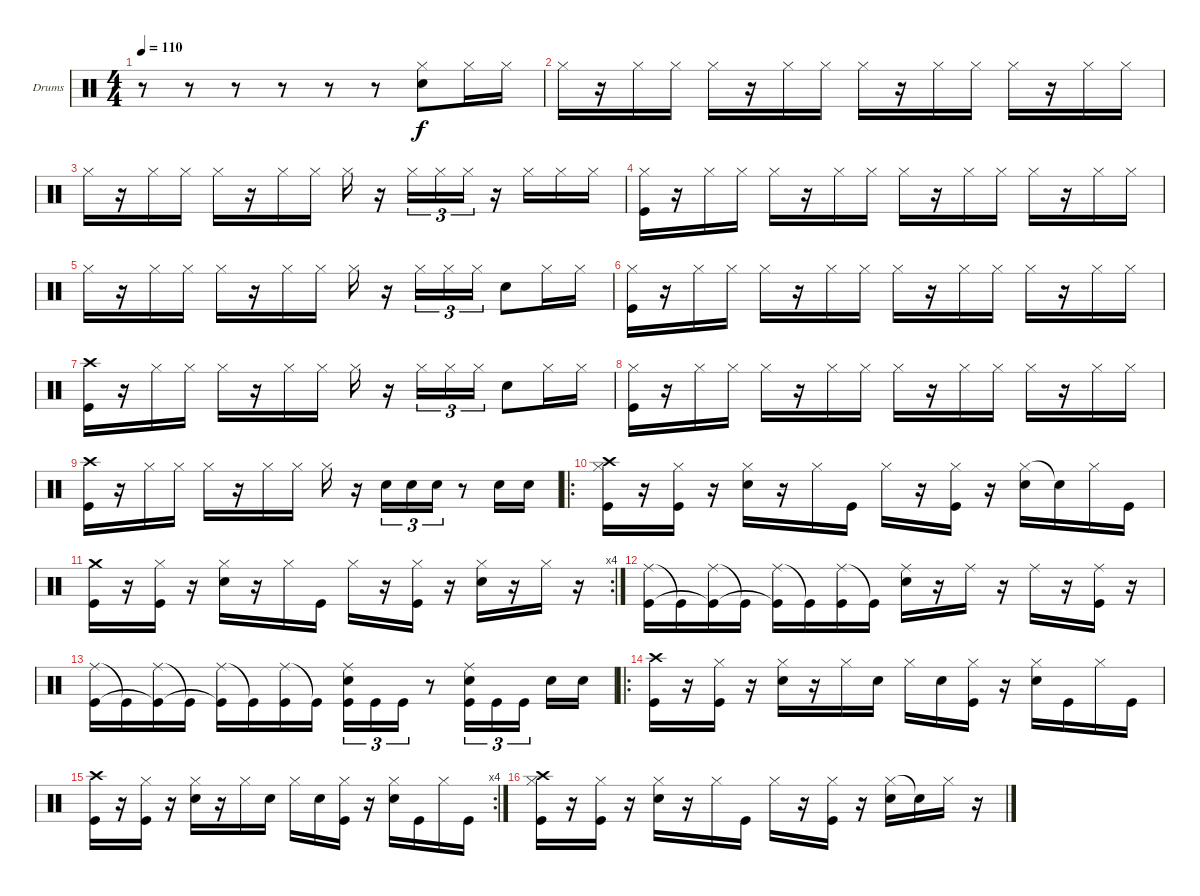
\defaultSystemsLayout 4
\bracketExtendMode groupsimilarinstruments
\firstSystemTrackNameOrientation horizontal
\otherSystemsTrackNameOrientation horizontal
\track ("Павел Тетерин(Pa$ok)" "Drums") {instrument percussion}
\staff {score}
\articulation defaults
\ts (4 4)
\tempo 110
\clef neutral
\scale
0.472222
\ks c
r.8{dy f} r.8 r.8 r.8 r.8 r.8 ("Hi-Hat (closed)" "Snare (hit) 2").8 "Hi-Hat (closed)".16 "Hi-Hat (closed)".16 |
\scale
0.263889 "Hi-Hat (closed)".16 r.16 "Hi-Hat (closed)".16 "Hi-Hat (closed)".16 "Hi-Hat (closed)".16 r.16 "Hi-Hat (closed)".16 "Hi-Hat (closed)".16 "Hi-Hat (closed)".16 r.16 "Hi-Hat (closed)".16 "Hi-Hat (closed)".16 "Hi-Hat (closed)".16 r.16 "Hi-Hat (closed)".16 "Hi-Hat (closed)".16 |
\scale
0.263889 "Hi-Hat (closed)".16 r.16 "Hi-Hat (closed)".16 "Hi-Hat (closed)".16 "Hi-Hat (closed)".16 r.16 "Hi-Hat (closed)".16 "Hi-Hat (closed)".16 "Hi-Hat (closed)".16 r.16 "Hi-Hat (closed)".16{tu (3 2)} "Hi-Hat (closed)".16{tu (3 2)} "Hi-Hat (closed)".16{tu (3 2)} r.16 "Hi-Hat (closed)".16 "Hi-Hat (closed)".16 "Hi-Hat (closed)".16 |
\scale
0.333333 ("Hi-Hat (closed)" "Kick (hit)").16 r.16 "Hi-Hat (closed)".16 "Hi-Hat (closed)".16 "Hi-Hat (closed)".16 r.16 "Hi-Hat (closed)".16 "Hi-Hat (closed)".16 "Hi-Hat (closed)".16 r.16 "Hi-Hat (closed)".16 "Hi-Hat (closed)".16 "Hi-Hat (closed)".16 r.16 "Hi-Hat (closed)".16 "Hi-Hat (closed)".16 |
\scale
0.333333 "Hi-Hat (closed)".16 r.16 "Hi-Hat (closed)".16 "Hi-Hat (closed)".16 "Hi-Hat (closed)".16 r.16 "Hi-Hat (closed)".16 "Hi-Hat (closed)".16 "Hi-Hat (closed)".16 r.16 "Hi-Hat (closed)".16{tu (3 2)} "Hi-Hat (closed)".16{tu (3 2)} "Hi-Hat (closed)".16{tu (3 2)} "Snare (hit) 2".8 "Hi-Hat (closed)".16 "Hi-Hat (closed)".16 |
\scale
0.333333 ("Hi-Hat (closed)" "Kick (hit)").16 r.16 "Hi-Hat (closed)".16 "Hi-Hat (closed)".16 "Hi-Hat (closed)".16 r.16 "Hi-Hat (closed)".16 "Hi-Hat (closed)".16 "Hi-Hat (closed)".16 r.16 "Hi-Hat (closed)".16 "Hi-Hat (closed)".16 "Hi-Hat (closed)".16 r.16 "Hi-Hat (closed)".16 "Hi-Hat (closed)".16 |
\scale
0.333333 ("Crash high (hit)" "Kick (hit)").16 r.16 "Hi-Hat (closed)".16 "Hi-Hat (closed)".16 "Hi-Hat (closed)".16 r.16 "Hi-Hat (closed)".16 "Hi-Hat (closed)".16 "Hi-Hat (closed)".16 r.16 "Hi-Hat (closed)".16{tu (3 2)} "Hi-Hat (closed)".16{tu (3 2)} "Hi-Hat (closed)".16{tu (3 2)} "Snare (hit) 2".8 "Hi-Hat (closed)".16 "Hi-Hat (closed)".16 |
\scale
0.333333 ("Hi-Hat (closed)" "Kick (hit)").16 r.16 "Hi-Hat (closed)".16 "Hi-Hat (closed)".16 "Hi-Hat (closed)".16 r.16 "Hi-Hat (closed)".16 "Hi-Hat (closed)".16 "Hi-Hat (closed)".16 r.16 "Hi-Hat (closed)".16 "Hi-Hat (closed)".16 "Hi-Hat (closed)".16 r.16 "Hi-Hat (closed)".16 "Hi-Hat (closed)".16 |
\scale
0.333333 ("Crash high (hit)" "Kick (hit)").16 r.16 "Hi-Hat (closed)".16 "Hi-Hat (closed)".16 "Hi-Hat (closed)".16 r.16 "Hi-Hat (closed)".16 "Hi-Hat (closed)".16 "Hi-Hat (closed)".16 r.16 "Snare (hit) 2".16{tu (3 2)} "Snare (hit) 2".16{tu (3 2)} "Snare (hit) 2".16{tu (3 2)} r.8 "Snare (hit) 2".16 "Snare (hit) 2".16 |
\ro
\scale
0.333333 ("Crash high (hit)" "Hi-Hat (closed)" "Kick (hit)").16 r.16 ("Hi-Hat (closed)" "Kick (hit)").16 r.16 ("Hi-Hat (closed)" "Snare (hit) 2").16 r.16 "Hi-Hat (closed)".16 "Kick (hit)".16 "Hi-Hat (closed)".16 r.16 ("Hi-Hat (closed)" "Kick (hit)").16 r.16 ("Hi-Hat (closed)" "Snare (hit) 2").16 "Snare (hit) 2"{t}.16 "Hi-Hat (closed)".16 "Kick (hit)".16 |
\rc 4
\scale
0.333333 ("Crash medium (hit)" "Kick (hit)").16 r.16 ("Hi-Hat (closed)" "Kick (hit)").16 r.16 ("Hi-Hat (closed)" "Snare (hit) 2").16 r.16 "Hi-Hat (closed)".16 "Kick (hit)".16 "Hi-Hat (closed)".16 r.16 ("Hi-Hat (closed)" "Kick (hit)").16 r.16 ("Hi-Hat (closed)" "Snare (hit) 2").16 r.16 "Hi-Hat (closed)".16 r.16 |
\scale
0.333333 ("Ride (middle)" "Kick (hit)").16 "Kick (hit)"{t}.16 ("Ride (middle)" "Kick (hit)"{t}).16 "Kick (hit)"{t}.16 ("Ride (middle)" "Kick (hit)"{t}).16 "Kick (hit)"{t}.16 ("Ride (middle)" "Kick (hit)").16 "Kick (hit)"{t}.16 ("Ride (middle)" "Snare (hit) 2").16 r.16 "Ride (middle)".16 r.16 "Ride (middle)".16 r.16 ("Ride (middle)" "Kick (hit)").16 r.16 |
\scale
0.333333 ("Ride (middle)" "Kick (hit)").16 "Kick (hit)"{t}.16 ("Ride (middle)" "Kick (hit)"{t}).16 "Kick (hit)"{t}.16 ("Ride (middle)" "Kick (hit)"{t}).16 "Kick (hit)"{t}.16 ("Ride (middle)" "Kick (hit)").16 "Kick (hit)"{t}.16 ("Ride (middle)" "Snare (hit) 2" "Kick (hit)").16{tu (3 2)} "Kick (hit)".16{tu (3 2)} "Kick (hit)".16{tu (3 2)} r.8 ("Ride (middle)" "Snare (hit) 2" "Kick (hit)").16{tu (3 2)} "Kick (hit)".16{tu (3 2)} "Kick (hit)".16{tu (3 2)} "Snare (hit) 2".16 "Snare (hit) 2".16 |
\ro
\scale
0.333333 ("Crash high (hit)" "Kick (hit)").16 r.16 ("Hi-Hat (closed)" "Kick (hit)").16 r.16 ("Hi-Hat (closed)" "Snare (hit) 2").16 r.16 "Hi-Hat (closed)".16 "Snare (hit) 2".16 "Hi-Hat (closed)".16 "Snare (hit) 2".16 ("Hi-Hat (closed)" "Kick (hit)").16 r.16 ("Hi-Hat (closed)" "Snare (hit) 2").16 "Kick (hit)".16 "Hi-Hat (closed)".16 "Kick (hit)".16 |
\rc 4
\scale
0.333333 ("Crash high (hit)" "Kick (hit)").16 r.16 ("Hi-Hat (closed)" "Kick (hit)").16 r.16 ("Hi-Hat (closed)" "Snare (hit) 2").16 r.16 "Hi-Hat (closed)".16 "Snare (hit) 2".16 "Hi-Hat (closed)".16 "Snare (hit) 2".16 ("Hi-Hat (closed)" "Kick (hit)").16 r.16 ("Hi-Hat (closed)" "Snare (hit) 2").16 "Kick (hit)".16 "Hi-Hat (closed)".16 "Kick (hit)".16 |
\scale
0.333333 ("Crash high (hit)" "Hi-Hat (closed)" "Kick (hit)").16 r.16 ("Hi-Hat (closed)" "Kick (hit)").16 r.16 ("Hi-Hat (closed)" "Snare (hit) 2").16 r.16 "Hi-Hat (closed)".16 "Kick (hit)".16 "Hi-Hat (closed)".16 r.16 ("Hi-Hat (closed)" "Kick (hit)").16 r.16 ("Hi-Hat (closed)" "Snare (hit) 2").16 "Snare (hit) 2"{t}.16 "Hi-Hat (closed)".16 r.16
